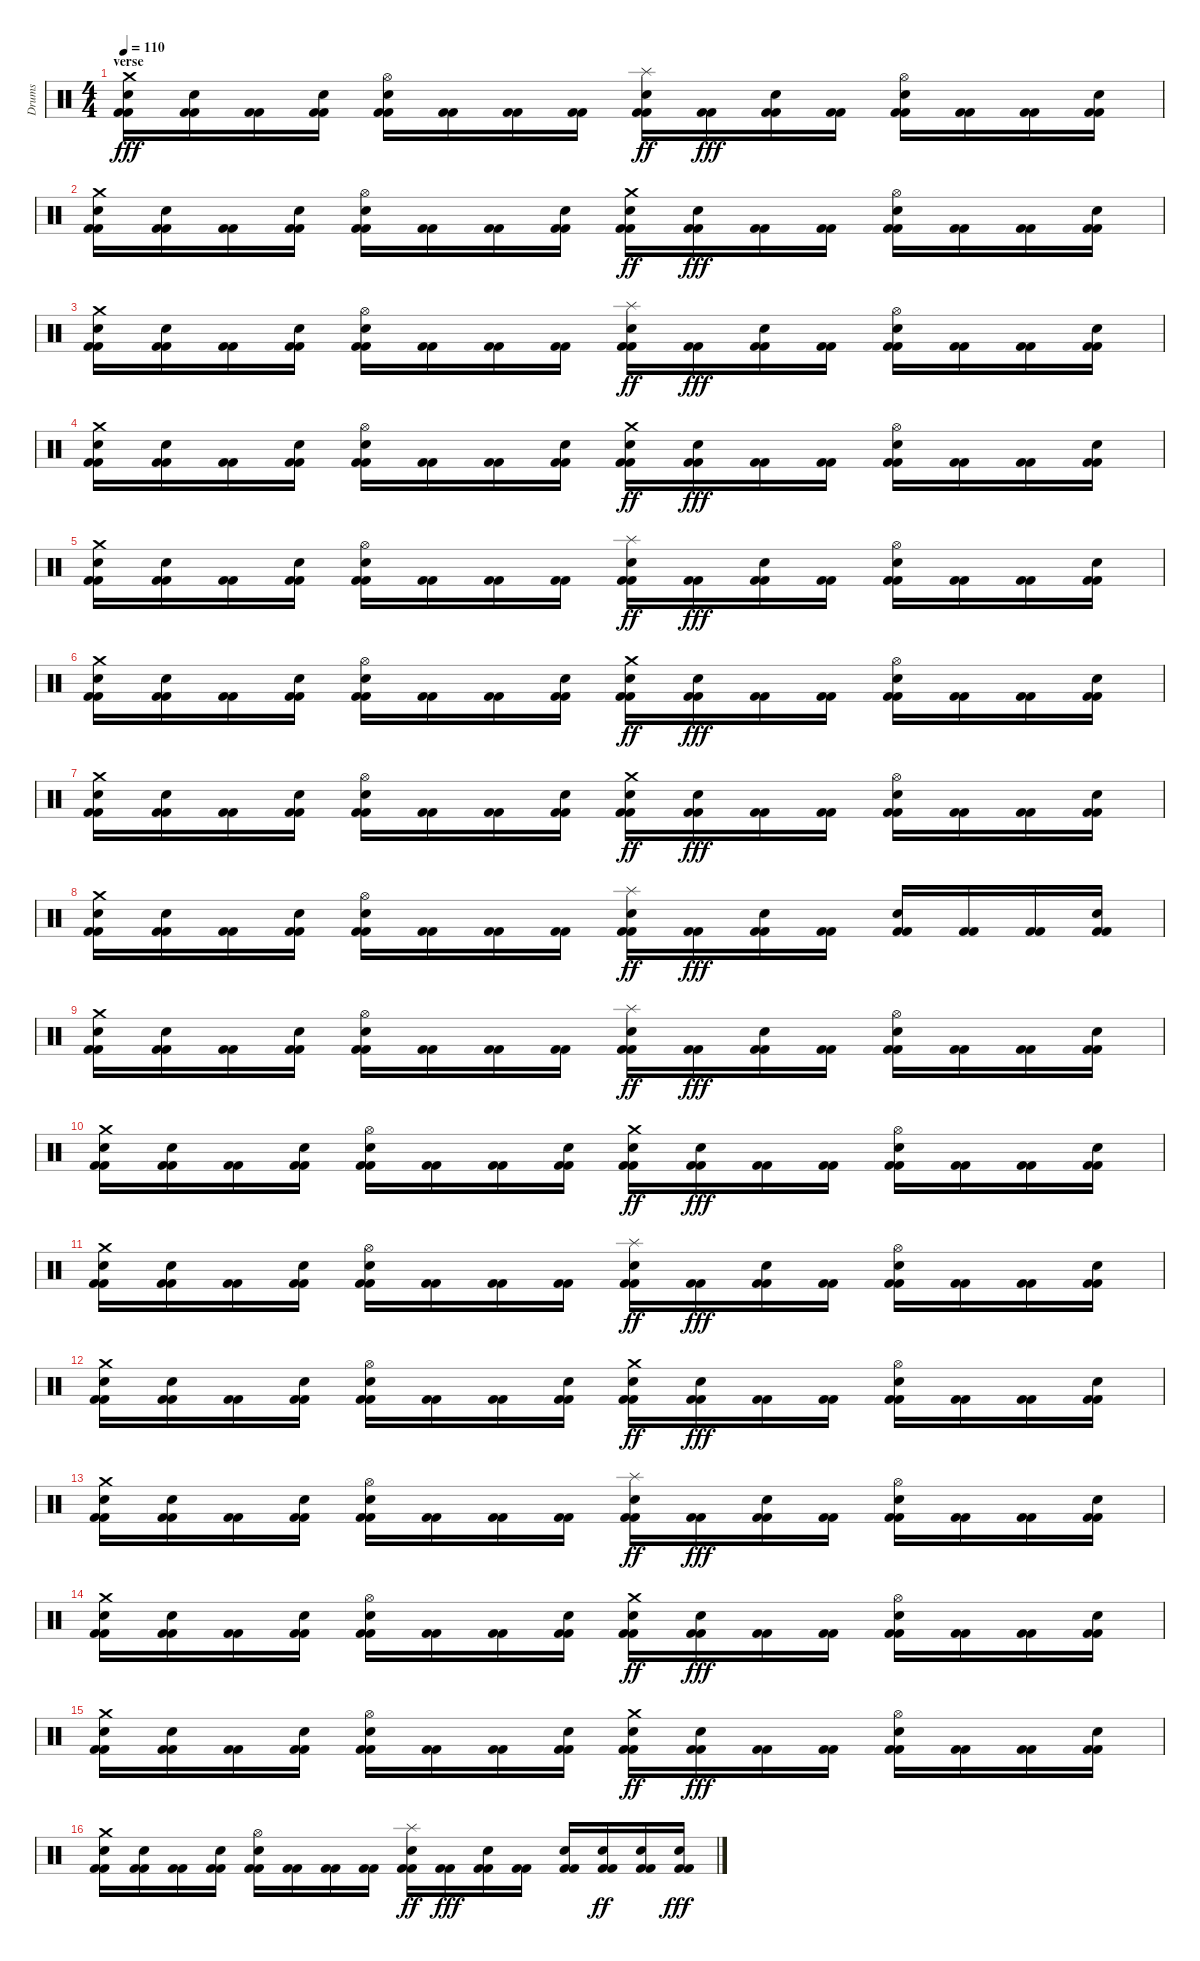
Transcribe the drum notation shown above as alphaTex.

\track ("Drums" "Drums") {instrument percussion}
\staff {score}
\articulation defaults
\ts (4 4)
\section ("" "verse")
\tempo 110
\clef neutral
\ks c
("Kick (hit) 2" "Kick (hit) 2" "Electric Snare (hit)" "Crash medium (hit)").16{dy fff} ("Kick (hit) 2" "Kick (hit) 2" "Electric Snare (hit)").16 ("Kick (hit) 2" "Kick (hit) 2").16 ("Kick (hit) 2" "Kick (hit) 2" "Electric Snare (hit)").16 ("Kick (hit) 2" "Kick (hit) 2" "Electric Snare (hit)" "Hi-Hat (open)").16 ("Kick (hit) 2" "Kick (hit) 2").16 ("Kick (hit) 2" "Kick (hit) 2").16 ("Kick (hit) 2" "Kick (hit) 2").16 ("Kick (hit) 2" "Kick (hit) 2" "Electric Snare (hit)" "Splash (hit)").16{dy ff} ("Kick (hit) 2" "Kick (hit) 2").16{dy fff} ("Kick (hit) 2" "Kick (hit) 2" "Electric Snare (hit)").16 ("Kick (hit) 2" "Kick (hit) 2").16 ("Kick (hit) 2" "Kick (hit) 2" "Electric Snare (hit)" "Hi-Hat (open)").16 ("Kick (hit) 2" "Kick (hit) 2").16 ("Kick (hit) 2" "Kick (hit) 2").16 ("Kick (hit) 2" "Kick (hit) 2" "Electric Snare (hit)").16 |
("Kick (hit) 2" "Kick (hit) 2" "Electric Snare (hit)" "Crash medium (hit)").16 ("Kick (hit) 2" "Kick (hit) 2" "Electric Snare (hit)").16 ("Kick (hit) 2" "Kick (hit) 2").16 ("Kick (hit) 2" "Kick (hit) 2" "Electric Snare (hit)").16 ("Kick (hit) 2" "Kick (hit) 2" "Electric Snare (hit)" "Hi-Hat (open)").16 ("Kick (hit) 2" "Kick (hit) 2").16 ("Kick (hit) 2" "Kick (hit) 2").16 ("Kick (hit) 2" "Kick (hit) 2" "Electric Snare (hit)").16 ("Kick (hit) 2" "Kick (hit) 2" "Electric Snare (hit)" "Crash medium (hit)").16{dy ff} ("Kick (hit) 2" "Kick (hit) 2" "Electric Snare (hit)").16{dy fff} ("Kick (hit) 2" "Kick (hit) 2").16 ("Kick (hit) 2" "Kick (hit) 2").16 ("Kick (hit) 2" "Kick (hit) 2" "Electric Snare (hit)" "Hi-Hat (open)").16 ("Kick (hit) 2" "Kick (hit) 2").16 ("Kick (hit) 2" "Kick (hit) 2").16 ("Kick (hit) 2" "Kick (hit) 2" "Electric Snare (hit)").16 |
("Kick (hit) 2" "Kick (hit) 2" "Electric Snare (hit)" "Crash medium (hit)").16 ("Kick (hit) 2" "Kick (hit) 2" "Electric Snare (hit)").16 ("Kick (hit) 2" "Kick (hit) 2").16 ("Kick (hit) 2" "Kick (hit) 2" "Electric Snare (hit)").16 ("Kick (hit) 2" "Kick (hit) 2" "Electric Snare (hit)" "Hi-Hat (open)").16 ("Kick (hit) 2" "Kick (hit) 2").16 ("Kick (hit) 2" "Kick (hit) 2").16 ("Kick (hit) 2" "Kick (hit) 2").16 ("Kick (hit) 2" "Kick (hit) 2" "Electric Snare (hit)" "Splash (hit)").16{dy ff} ("Kick (hit) 2" "Kick (hit) 2").16{dy fff} ("Kick (hit) 2" "Kick (hit) 2" "Electric Snare (hit)").16 ("Kick (hit) 2" "Kick (hit) 2").16 ("Kick (hit) 2" "Kick (hit) 2" "Electric Snare (hit)" "Hi-Hat (open)").16 ("Kick (hit) 2" "Kick (hit) 2").16 ("Kick (hit) 2" "Kick (hit) 2").16 ("Kick (hit) 2" "Kick (hit) 2" "Electric Snare (hit)").16 |
("Kick (hit) 2" "Kick (hit) 2" "Electric Snare (hit)" "Crash medium (hit)").16 ("Kick (hit) 2" "Kick (hit) 2" "Electric Snare (hit)").16 ("Kick (hit) 2" "Kick (hit) 2").16 ("Kick (hit) 2" "Kick (hit) 2" "Electric Snare (hit)").16 ("Kick (hit) 2" "Kick (hit) 2" "Electric Snare (hit)" "Hi-Hat (open)").16 ("Kick (hit) 2" "Kick (hit) 2").16 ("Kick (hit) 2" "Kick (hit) 2").16 ("Kick (hit) 2" "Kick (hit) 2" "Electric Snare (hit)").16 ("Kick (hit) 2" "Kick (hit) 2" "Electric Snare (hit)" "Crash medium (hit)").16{dy ff} ("Kick (hit) 2" "Kick (hit) 2" "Electric Snare (hit)").16{dy fff} ("Kick (hit) 2" "Kick (hit) 2").16 ("Kick (hit) 2" "Kick (hit) 2").16 ("Kick (hit) 2" "Kick (hit) 2" "Electric Snare (hit)" "Hi-Hat (open)").16 ("Kick (hit) 2" "Kick (hit) 2").16 ("Kick (hit) 2" "Kick (hit) 2").16 ("Kick (hit) 2" "Kick (hit) 2" "Electric Snare (hit)").16 |
("Kick (hit) 2" "Kick (hit) 2" "Electric Snare (hit)" "Crash medium (hit)").16 ("Kick (hit) 2" "Kick (hit) 2" "Electric Snare (hit)").16 ("Kick (hit) 2" "Kick (hit) 2").16 ("Kick (hit) 2" "Kick (hit) 2" "Electric Snare (hit)").16 ("Kick (hit) 2" "Kick (hit) 2" "Electric Snare (hit)" "Hi-Hat (open)").16 ("Kick (hit) 2" "Kick (hit) 2").16 ("Kick (hit) 2" "Kick (hit) 2").16 ("Kick (hit) 2" "Kick (hit) 2").16 ("Kick (hit) 2" "Kick (hit) 2" "Electric Snare (hit)" "Splash (hit)").16{dy ff} ("Kick (hit) 2" "Kick (hit) 2").16{dy fff} ("Kick (hit) 2" "Kick (hit) 2" "Electric Snare (hit)").16 ("Kick (hit) 2" "Kick (hit) 2").16 ("Kick (hit) 2" "Kick (hit) 2" "Electric Snare (hit)" "Hi-Hat (open)").16 ("Kick (hit) 2" "Kick (hit) 2").16 ("Kick (hit) 2" "Kick (hit) 2").16 ("Kick (hit) 2" "Kick (hit) 2" "Electric Snare (hit)").16 |
("Kick (hit) 2" "Kick (hit) 2" "Electric Snare (hit)" "Crash medium (hit)").16 ("Kick (hit) 2" "Kick (hit) 2" "Electric Snare (hit)").16 ("Kick (hit) 2" "Kick (hit) 2").16 ("Kick (hit) 2" "Kick (hit) 2" "Electric Snare (hit)").16 ("Kick (hit) 2" "Kick (hit) 2" "Electric Snare (hit)" "Hi-Hat (open)").16 ("Kick (hit) 2" "Kick (hit) 2").16 ("Kick (hit) 2" "Kick (hit) 2").16 ("Kick (hit) 2" "Kick (hit) 2" "Electric Snare (hit)").16 ("Kick (hit) 2" "Kick (hit) 2" "Electric Snare (hit)" "Crash medium (hit)").16{dy ff} ("Kick (hit) 2" "Kick (hit) 2" "Electric Snare (hit)").16{dy fff} ("Kick (hit) 2" "Kick (hit) 2").16 ("Kick (hit) 2" "Kick (hit) 2").16 ("Kick (hit) 2" "Kick (hit) 2" "Electric Snare (hit)" "Hi-Hat (open)").16 ("Kick (hit) 2" "Kick (hit) 2").16 ("Kick (hit) 2" "Kick (hit) 2").16 ("Kick (hit) 2" "Kick (hit) 2" "Electric Snare (hit)").16 |
("Kick (hit) 2" "Kick (hit) 2" "Electric Snare (hit)" "Crash medium (hit)").16 ("Kick (hit) 2" "Kick (hit) 2" "Electric Snare (hit)").16 ("Kick (hit) 2" "Kick (hit) 2").16 ("Kick (hit) 2" "Kick (hit) 2" "Electric Snare (hit)").16 ("Kick (hit) 2" "Kick (hit) 2" "Electric Snare (hit)" "Hi-Hat (open)").16 ("Kick (hit) 2" "Kick (hit) 2").16 ("Kick (hit) 2" "Kick (hit) 2").16 ("Kick (hit) 2" "Kick (hit) 2" "Electric Snare (hit)").16 ("Kick (hit) 2" "Kick (hit) 2" "Electric Snare (hit)" "Crash medium (hit)").16{dy ff} ("Kick (hit) 2" "Kick (hit) 2" "Electric Snare (hit)").16{dy fff} ("Kick (hit) 2" "Kick (hit) 2").16 ("Kick (hit) 2" "Kick (hit) 2").16 ("Kick (hit) 2" "Kick (hit) 2" "Electric Snare (hit)" "Hi-Hat (open)").16 ("Kick (hit) 2" "Kick (hit) 2").16 ("Kick (hit) 2" "Kick (hit) 2").16 ("Kick (hit) 2" "Kick (hit) 2" "Electric Snare (hit)").16 |
("Kick (hit) 2" "Kick (hit) 2" "Electric Snare (hit)" "Crash medium (hit)").16 ("Kick (hit) 2" "Kick (hit) 2" "Electric Snare (hit)").16 ("Kick (hit) 2" "Kick (hit) 2").16 ("Kick (hit) 2" "Kick (hit) 2" "Electric Snare (hit)").16 ("Kick (hit) 2" "Kick (hit) 2" "Electric Snare (hit)" "Hi-Hat (open)").16 ("Kick (hit) 2" "Kick (hit) 2").16 ("Kick (hit) 2" "Kick (hit) 2").16 ("Kick (hit) 2" "Kick (hit) 2").16 ("Kick (hit) 2" "Kick (hit) 2" "Electric Snare (hit)" "Splash (hit)").16{dy ff} ("Kick (hit) 2" "Kick (hit) 2").16{dy fff} ("Kick (hit) 2" "Kick (hit) 2" "Electric Snare (hit)").16 ("Kick (hit) 2" "Kick (hit) 2").16 ("Kick (hit) 2" "Kick (hit) 2" "Electric Snare (hit)").16 ("Kick (hit) 2" "Kick (hit) 2").16 ("Kick (hit) 2" "Kick (hit) 2").16 ("Kick (hit) 2" "Kick (hit) 2" "Electric Snare (hit)").16 |
("Kick (hit) 2" "Kick (hit) 2" "Electric Snare (hit)" "Crash medium (hit)").16 ("Kick (hit) 2" "Kick (hit) 2" "Electric Snare (hit)").16 ("Kick (hit) 2" "Kick (hit) 2").16 ("Kick (hit) 2" "Kick (hit) 2" "Electric Snare (hit)").16 ("Kick (hit) 2" "Kick (hit) 2" "Electric Snare (hit)" "Hi-Hat (open)").16 ("Kick (hit) 2" "Kick (hit) 2").16 ("Kick (hit) 2" "Kick (hit) 2").16 ("Kick (hit) 2" "Kick (hit) 2").16 ("Kick (hit) 2" "Kick (hit) 2" "Electric Snare (hit)" "Splash (hit)").16{dy ff} ("Kick (hit) 2" "Kick (hit) 2").16{dy fff} ("Kick (hit) 2" "Kick (hit) 2" "Electric Snare (hit)").16 ("Kick (hit) 2" "Kick (hit) 2").16 ("Kick (hit) 2" "Kick (hit) 2" "Electric Snare (hit)" "Hi-Hat (open)").16 ("Kick (hit) 2" "Kick (hit) 2").16 ("Kick (hit) 2" "Kick (hit) 2").16 ("Kick (hit) 2" "Kick (hit) 2" "Electric Snare (hit)").16 |
("Kick (hit) 2" "Kick (hit) 2" "Electric Snare (hit)" "Crash medium (hit)").16 ("Kick (hit) 2" "Kick (hit) 2" "Electric Snare (hit)").16 ("Kick (hit) 2" "Kick (hit) 2").16 ("Kick (hit) 2" "Kick (hit) 2" "Electric Snare (hit)").16 ("Kick (hit) 2" "Kick (hit) 2" "Electric Snare (hit)" "Hi-Hat (open)").16 ("Kick (hit) 2" "Kick (hit) 2").16 ("Kick (hit) 2" "Kick (hit) 2").16 ("Kick (hit) 2" "Kick (hit) 2" "Electric Snare (hit)").16 ("Kick (hit) 2" "Kick (hit) 2" "Electric Snare (hit)" "Crash medium (hit)").16{dy ff} ("Kick (hit) 2" "Kick (hit) 2" "Electric Snare (hit)").16{dy fff} ("Kick (hit) 2" "Kick (hit) 2").16 ("Kick (hit) 2" "Kick (hit) 2").16 ("Kick (hit) 2" "Kick (hit) 2" "Electric Snare (hit)" "Hi-Hat (open)").16 ("Kick (hit) 2" "Kick (hit) 2").16 ("Kick (hit) 2" "Kick (hit) 2").16 ("Kick (hit) 2" "Kick (hit) 2" "Electric Snare (hit)").16 |
("Kick (hit) 2" "Kick (hit) 2" "Electric Snare (hit)" "Crash medium (hit)").16 ("Kick (hit) 2" "Kick (hit) 2" "Electric Snare (hit)").16 ("Kick (hit) 2" "Kick (hit) 2").16 ("Kick (hit) 2" "Kick (hit) 2" "Electric Snare (hit)").16 ("Kick (hit) 2" "Kick (hit) 2" "Electric Snare (hit)" "Hi-Hat (open)").16 ("Kick (hit) 2" "Kick (hit) 2").16 ("Kick (hit) 2" "Kick (hit) 2").16 ("Kick (hit) 2" "Kick (hit) 2").16 ("Kick (hit) 2" "Kick (hit) 2" "Electric Snare (hit)" "Splash (hit)").16{dy ff} ("Kick (hit) 2" "Kick (hit) 2").16{dy fff} ("Kick (hit) 2" "Kick (hit) 2" "Electric Snare (hit)").16 ("Kick (hit) 2" "Kick (hit) 2").16 ("Kick (hit) 2" "Kick (hit) 2" "Electric Snare (hit)" "Hi-Hat (open)").16 ("Kick (hit) 2" "Kick (hit) 2").16 ("Kick (hit) 2" "Kick (hit) 2").16 ("Kick (hit) 2" "Kick (hit) 2" "Electric Snare (hit)").16 |
("Kick (hit) 2" "Kick (hit) 2" "Electric Snare (hit)" "Crash medium (hit)").16 ("Kick (hit) 2" "Kick (hit) 2" "Electric Snare (hit)").16 ("Kick (hit) 2" "Kick (hit) 2").16 ("Kick (hit) 2" "Kick (hit) 2" "Electric Snare (hit)").16 ("Kick (hit) 2" "Kick (hit) 2" "Electric Snare (hit)" "Hi-Hat (open)").16 ("Kick (hit) 2" "Kick (hit) 2").16 ("Kick (hit) 2" "Kick (hit) 2").16 ("Kick (hit) 2" "Kick (hit) 2" "Electric Snare (hit)").16 ("Kick (hit) 2" "Kick (hit) 2" "Electric Snare (hit)" "Crash medium (hit)").16{dy ff} ("Kick (hit) 2" "Kick (hit) 2" "Electric Snare (hit)").16{dy fff} ("Kick (hit) 2" "Kick (hit) 2").16 ("Kick (hit) 2" "Kick (hit) 2").16 ("Kick (hit) 2" "Kick (hit) 2" "Electric Snare (hit)" "Hi-Hat (open)").16 ("Kick (hit) 2" "Kick (hit) 2").16 ("Kick (hit) 2" "Kick (hit) 2").16 ("Kick (hit) 2" "Kick (hit) 2" "Electric Snare (hit)").16 |
("Kick (hit) 2" "Kick (hit) 2" "Electric Snare (hit)" "Crash medium (hit)").16 ("Kick (hit) 2" "Kick (hit) 2" "Electric Snare (hit)").16 ("Kick (hit) 2" "Kick (hit) 2").16 ("Kick (hit) 2" "Kick (hit) 2" "Electric Snare (hit)").16 ("Kick (hit) 2" "Kick (hit) 2" "Electric Snare (hit)" "Hi-Hat (open)").16 ("Kick (hit) 2" "Kick (hit) 2").16 ("Kick (hit) 2" "Kick (hit) 2").16 ("Kick (hit) 2" "Kick (hit) 2").16 ("Kick (hit) 2" "Kick (hit) 2" "Electric Snare (hit)" "Splash (hit)").16{dy ff} ("Kick (hit) 2" "Kick (hit) 2").16{dy fff} ("Kick (hit) 2" "Kick (hit) 2" "Electric Snare (hit)").16 ("Kick (hit) 2" "Kick (hit) 2").16 ("Kick (hit) 2" "Kick (hit) 2" "Electric Snare (hit)" "Hi-Hat (open)").16 ("Kick (hit) 2" "Kick (hit) 2").16 ("Kick (hit) 2" "Kick (hit) 2").16 ("Kick (hit) 2" "Kick (hit) 2" "Electric Snare (hit)").16 |
("Kick (hit) 2" "Kick (hit) 2" "Electric Snare (hit)" "Crash medium (hit)").16 ("Kick (hit) 2" "Kick (hit) 2" "Electric Snare (hit)").16 ("Kick (hit) 2" "Kick (hit) 2").16 ("Kick (hit) 2" "Kick (hit) 2" "Electric Snare (hit)").16 ("Kick (hit) 2" "Kick (hit) 2" "Electric Snare (hit)" "Hi-Hat (open)").16 ("Kick (hit) 2" "Kick (hit) 2").16 ("Kick (hit) 2" "Kick (hit) 2").16 ("Kick (hit) 2" "Kick (hit) 2" "Electric Snare (hit)").16 ("Kick (hit) 2" "Kick (hit) 2" "Electric Snare (hit)" "Crash medium (hit)").16{dy ff} ("Kick (hit) 2" "Kick (hit) 2" "Electric Snare (hit)").16{dy fff} ("Kick (hit) 2" "Kick (hit) 2").16 ("Kick (hit) 2" "Kick (hit) 2").16 ("Kick (hit) 2" "Kick (hit) 2" "Electric Snare (hit)" "Hi-Hat (open)").16 ("Kick (hit) 2" "Kick (hit) 2").16 ("Kick (hit) 2" "Kick (hit) 2").16 ("Kick (hit) 2" "Kick (hit) 2" "Electric Snare (hit)").16 |
("Kick (hit) 2" "Kick (hit) 2" "Electric Snare (hit)" "Crash medium (hit)").16 ("Kick (hit) 2" "Kick (hit) 2" "Electric Snare (hit)").16 ("Kick (hit) 2" "Kick (hit) 2").16 ("Kick (hit) 2" "Kick (hit) 2" "Electric Snare (hit)").16 ("Kick (hit) 2" "Kick (hit) 2" "Electric Snare (hit)" "Hi-Hat (open)").16 ("Kick (hit) 2" "Kick (hit) 2").16 ("Kick (hit) 2" "Kick (hit) 2").16 ("Kick (hit) 2" "Kick (hit) 2" "Electric Snare (hit)").16 ("Kick (hit) 2" "Kick (hit) 2" "Electric Snare (hit)" "Crash medium (hit)").16{dy ff} ("Kick (hit) 2" "Kick (hit) 2" "Electric Snare (hit)").16{dy fff} ("Kick (hit) 2" "Kick (hit) 2").16 ("Kick (hit) 2" "Kick (hit) 2").16 ("Kick (hit) 2" "Kick (hit) 2" "Electric Snare (hit)" "Hi-Hat (open)").16 ("Kick (hit) 2" "Kick (hit) 2").16 ("Kick (hit) 2" "Kick (hit) 2").16 ("Kick (hit) 2" "Kick (hit) 2" "Electric Snare (hit)").16 |
("Kick (hit) 2" "Kick (hit) 2" "Electric Snare (hit)" "Crash medium (hit)").16 ("Kick (hit) 2" "Kick (hit) 2" "Electric Snare (hit)").16 ("Kick (hit) 2" "Kick (hit) 2").16 ("Kick (hit) 2" "Kick (hit) 2" "Electric Snare (hit)").16 ("Kick (hit) 2" "Kick (hit) 2" "Electric Snare (hit)" "Hi-Hat (open)").16 ("Kick (hit) 2" "Kick (hit) 2").16 ("Kick (hit) 2" "Kick (hit) 2").16 ("Kick (hit) 2" "Kick (hit) 2").16 ("Kick (hit) 2" "Kick (hit) 2" "Electric Snare (hit)" "Splash (hit)").16{dy ff} ("Kick (hit) 2" "Kick (hit) 2").16{dy fff} ("Kick (hit) 2" "Kick (hit) 2" "Electric Snare (hit)").16 ("Kick (hit) 2" "Kick (hit) 2").16 ("Kick (hit) 2" "Kick (hit) 2" "Electric Snare (hit)").16 ("Kick (hit) 2" "Kick (hit) 2" "Electric Snare (hit)").16{dy ff} ("Kick (hit) 2" "Kick (hit) 2" "Electric Snare (hit)").16 ("Kick (hit) 2" "Kick (hit) 2" "Electric Snare (hit)").16{dy fff}
